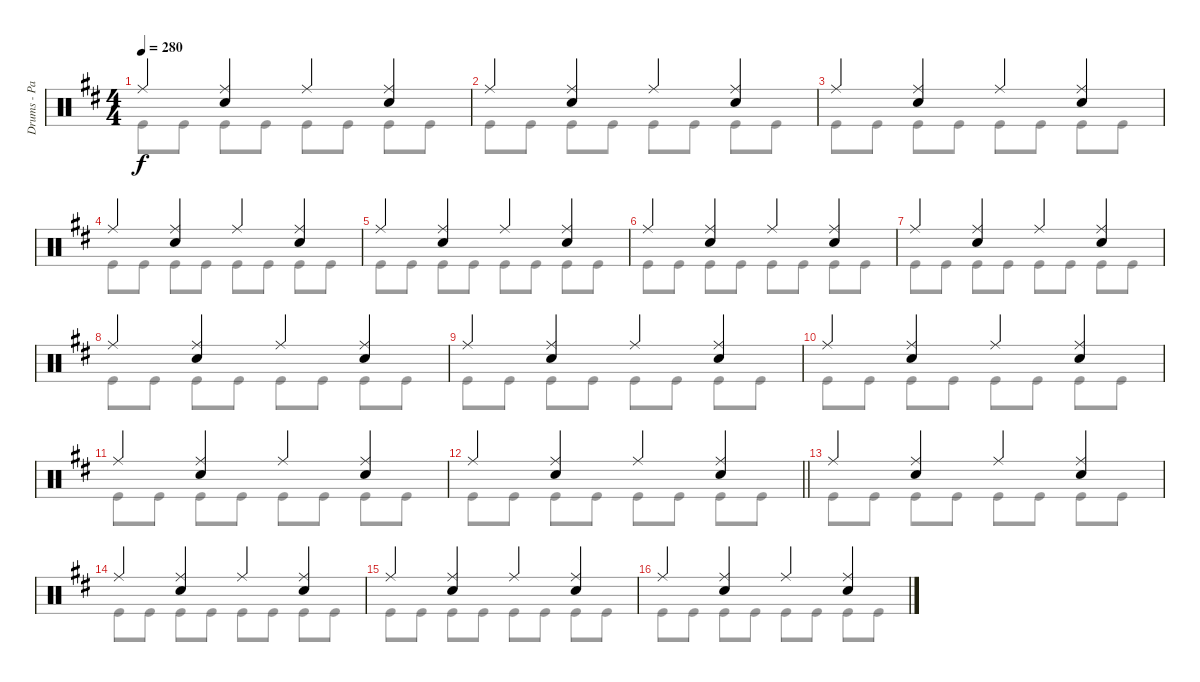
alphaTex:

\track ("Drums - Patrick Johansson" "Drums - Pa") {instrument percussion}
\staff {score}
\articulation defaults
\voice
\ts (4 4)
\tempo 280
\clef neutral
\ks bminor "Ride (middle)".4{dy f}
("Ride (middle)" "Snare (hit) 2").4 "Ride (middle)".4 ("Ride (middle)" "Snare (hit) 2").4 |
"Ride (middle)".4 ("Ride (middle)" "Snare (hit) 2").4 "Ride (middle)".4 ("Ride (middle)" "Snare (hit) 2").4 |
"Ride (middle)".4 ("Ride (middle)" "Snare (hit) 2").4 "Ride (middle)".4 ("Ride (middle)" "Snare (hit) 2").4 |
"Ride (middle)".4 ("Ride (middle)" "Snare (hit) 2").4 "Ride (middle)".4 ("Ride (middle)" "Snare (hit) 2").4 |
"Ride (middle)".4 ("Ride (middle)" "Snare (hit) 2").4 "Ride (middle)".4 ("Ride (middle)" "Snare (hit) 2").4 |
"Ride (middle)".4 ("Ride (middle)" "Snare (hit) 2").4 "Ride (middle)".4 ("Ride (middle)" "Snare (hit) 2").4 |
"Ride (middle)".4 ("Ride (middle)" "Snare (hit) 2").4 "Ride (middle)".4 ("Ride (middle)" "Snare (hit) 2").4 |
"Ride (middle)".4 ("Ride (middle)" "Snare (hit) 2").4 "Ride (middle)".4 ("Ride (middle)" "Snare (hit) 2").4 |
"Ride (middle)".4 ("Ride (middle)" "Snare (hit) 2").4 "Ride (middle)".4 ("Ride (middle)" "Snare (hit) 2").4 |
"Ride (middle)".4 ("Ride (middle)" "Snare (hit) 2").4 "Ride (middle)".4 ("Ride (middle)" "Snare (hit) 2").4 |
"Ride (middle)".4 ("Ride (middle)" "Snare (hit) 2").4 "Ride (middle)".4 ("Ride (middle)" "Snare (hit) 2").4 |
\barLineRight lightlight "Ride (middle)".4
("Ride (middle)" "Snare (hit) 2").4 "Ride (middle)".4 ("Ride (middle)" "Snare (hit) 2").4 |
"Ride (middle)".4 ("Ride (middle)" "Snare (hit) 2").4 "Ride (middle)".4 ("Ride (middle)" "Snare (hit) 2").4 |
"Ride (middle)".4 ("Ride (middle)" "Snare (hit) 2").4 "Ride (middle)".4 ("Ride (middle)" "Snare (hit) 2").4 |
"Ride (middle)".4 ("Ride (middle)" "Snare (hit) 2").4 "Ride (middle)".4 ("Ride (middle)" "Snare (hit) 2").4 |
"Ride (middle)".4 ("Ride (middle)" "Snare (hit) 2").4 "Ride (middle)".4 ("Ride (middle)" "Snare (hit) 2").4
\voice
\clef neutral
\ottava regular
\simile none
\ks bminor "Kick (hit)".8{dy f} "Kick (hit)".8 "Kick (hit)".8 "Kick (hit)".8 "Kick (hit)".8 "Kick (hit)".8 "Kick (hit)".8 "Kick (hit)".8
|
"Kick (hit)".8 "Kick (hit)".8 "Kick (hit)".8 "Kick (hit)".8 "Kick (hit)".8 "Kick (hit)".8 "Kick (hit)".8 "Kick (hit)".8 |
"Kick (hit)".8 "Kick (hit)".8 "Kick (hit)".8 "Kick (hit)".8 "Kick (hit)".8 "Kick (hit)".8 "Kick (hit)".8 "Kick (hit)".8 |
"Kick (hit)".8 "Kick (hit)".8 "Kick (hit)".8 "Kick (hit)".8 "Kick (hit)".8 "Kick (hit)".8 "Kick (hit)".8 "Kick (hit)".8 |
"Kick (hit)".8 "Kick (hit)".8 "Kick (hit)".8 "Kick (hit)".8 "Kick (hit)".8 "Kick (hit)".8 "Kick (hit)".8 "Kick (hit)".8 |
"Kick (hit)".8 "Kick (hit)".8 "Kick (hit)".8 "Kick (hit)".8 "Kick (hit)".8 "Kick (hit)".8 "Kick (hit)".8 "Kick (hit)".8 |
"Kick (hit)".8 "Kick (hit)".8 "Kick (hit)".8 "Kick (hit)".8 "Kick (hit)".8 "Kick (hit)".8 "Kick (hit)".8 "Kick (hit)".8 |
"Kick (hit)".8 "Kick (hit)".8 "Kick (hit)".8 "Kick (hit)".8 "Kick (hit)".8 "Kick (hit)".8 "Kick (hit)".8 "Kick (hit)".8 |
"Kick (hit)".8 "Kick (hit)".8 "Kick (hit)".8 "Kick (hit)".8 "Kick (hit)".8 "Kick (hit)".8 "Kick (hit)".8 "Kick (hit)".8 |
"Kick (hit)".8 "Kick (hit)".8 "Kick (hit)".8 "Kick (hit)".8 "Kick (hit)".8 "Kick (hit)".8 "Kick (hit)".8 "Kick (hit)".8 |
"Kick (hit)".8 "Kick (hit)".8 "Kick (hit)".8 "Kick (hit)".8 "Kick (hit)".8 "Kick (hit)".8 "Kick (hit)".8 "Kick (hit)".8 |
\barLineRight lightlight "Kick (hit)".8 "Kick (hit)".8 "Kick (hit)".8 "Kick (hit)".8 "Kick (hit)".8 "Kick (hit)".8 "Kick (hit)".8 "Kick (hit)".8
|
"Kick (hit)".8 "Kick (hit)".8 "Kick (hit)".8 "Kick (hit)".8 "Kick (hit)".8 "Kick (hit)".8 "Kick (hit)".8 "Kick (hit)".8 |
"Kick (hit)".8 "Kick (hit)".8 "Kick (hit)".8 "Kick (hit)".8 "Kick (hit)".8 "Kick (hit)".8 "Kick (hit)".8 "Kick (hit)".8 |
"Kick (hit)".8 "Kick (hit)".8 "Kick (hit)".8 "Kick (hit)".8 "Kick (hit)".8 "Kick (hit)".8 "Kick (hit)".8 "Kick (hit)".8 |
"Kick (hit)".8 "Kick (hit)".8 "Kick (hit)".8 "Kick (hit)".8 "Kick (hit)".8 "Kick (hit)".8 "Kick (hit)".8 "Kick (hit)".8
